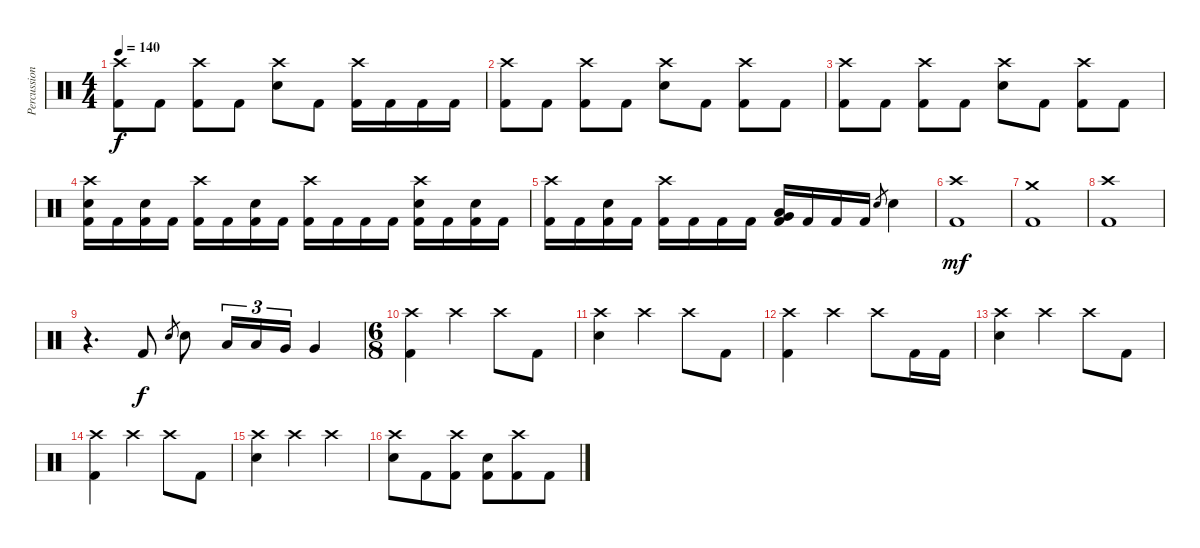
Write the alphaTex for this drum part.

\track ("Percussion" "Percussion") {instrument percussion}
\staff {score}
\articulation defaults
\ts (4 4)
\tempo 140
\clef neutral
\ks c
("Crash high (hit)" "Kick (hit) 2").8{dy f} "Kick (hit) 2".8 ("Crash high (hit)" "Kick (hit) 2").8 "Kick (hit) 2".8 ("Crash high (hit)" "Snare (hit) 2").8 "Kick (hit) 2".8 ("Crash high (hit)" "Kick (hit) 2").16 "Kick (hit) 2".16 "Kick (hit) 2".16 "Kick (hit) 2".16 |
("Crash high (hit)" "Kick (hit) 2").8 "Kick (hit) 2".8 ("Crash high (hit)" "Kick (hit) 2").8 "Kick (hit) 2".8 ("Crash high (hit)" "Snare (hit) 2").8 "Kick (hit) 2".8 ("Crash high (hit)" "Kick (hit) 2").8 "Kick (hit) 2".8 |
("Crash high (hit)" "Kick (hit) 2").8 "Kick (hit) 2".8 ("Crash high (hit)" "Kick (hit) 2").8 "Kick (hit) 2".8 ("Crash high (hit)" "Snare (hit) 2").8 "Kick (hit) 2".8 ("Crash high (hit)" "Kick (hit) 2").8 "Kick (hit) 2".8 |
("Crash high (hit)" "Snare (hit) 2" "Kick (hit) 2").16 "Kick (hit) 2".16 ("Snare (hit) 2" "Kick (hit) 2").16 "Kick (hit) 2".16 ("Crash high (hit)" "Kick (hit) 2").16 "Kick (hit) 2".16 ("Snare (hit) 2" "Kick (hit) 2").16 "Kick (hit) 2".16 ("Crash high (hit)" "Kick (hit) 2").16 "Kick (hit) 2".16 "Kick (hit) 2".16 "Kick (hit) 2".16 ("Crash high (hit)" "Snare (hit) 2" "Kick (hit) 2").16 "Kick (hit) 2".16 ("Snare (hit) 2" "Kick (hit) 2").16 "Kick (hit) 2".16 |
("Crash high (hit)" "Kick (hit) 2").16 "Kick (hit) 2".16 ("Snare (hit) 2" "Kick (hit) 2").16 "Kick (hit) 2".16 ("Crash high (hit)" "Kick (hit) 2").16 "Kick (hit) 2".16 "Kick (hit) 2".16 "Kick (hit) 2".16 ("Low Tom (hit)" "Very Low Tom (hit)" "Kick (hit) 2").16 "Kick (hit) 2".16 "Kick (hit) 2".16 "Kick (hit) 2".16 "Snare (hit) 2".8{gr} "Snare (hit) 2".4 |
("Crash high (hit)" "Kick (hit) 2").1{dy mf} |
("Crash medium (hit)" "Kick (hit) 2").1 |
("Crash high (hit)" "Kick (hit) 2").1 |
r.4{d} "Kick (hit) 2".8{dy f} "Snare (hit) 2".8{gr} "Snare (hit) 2".8 "Low Tom (hit)".16{tu (3 2)} "Low Tom (hit)".16{tu (3 2)} "Very Low Tom (hit)".16{tu (3 2)} "Very Low Tom (hit)".4 |
\ts (6 8)
("Crash high (hit)" "Kick (hit) 2").4 "Crash high (hit)".4 "Crash high (hit)".8 "Kick (hit) 2".8 |
("Crash high (hit)" "Snare (hit) 2").4 "Crash high (hit)".4 "Crash high (hit)".8 "Kick (hit) 2".8 |
("Crash high (hit)" "Kick (hit) 2").4 "Crash high (hit)".4 "Crash high (hit)".8 "Kick (hit) 2".16 "Kick (hit) 2".16 |
("Crash high (hit)" "Snare (hit) 2").4 "Crash high (hit)".4 "Crash high (hit)".8 "Kick (hit) 2".8 |
("Crash high (hit)" "Kick (hit) 2").4 "Crash high (hit)".4 "Crash high (hit)".8 "Kick (hit) 2".8 |
("Crash high (hit)" "Snare (hit) 2").4 "Crash high (hit)".4 "Crash high (hit)".4 |
("Crash high (hit)" "Snare (hit) 2").8 "Kick (hit) 2".8 ("Crash high (hit)" "Kick (hit) 2").8 ("Snare (hit) 2" "Kick (hit) 2").8 ("Crash high (hit)" "Kick (hit) 2").8 "Kick (hit) 2".8
